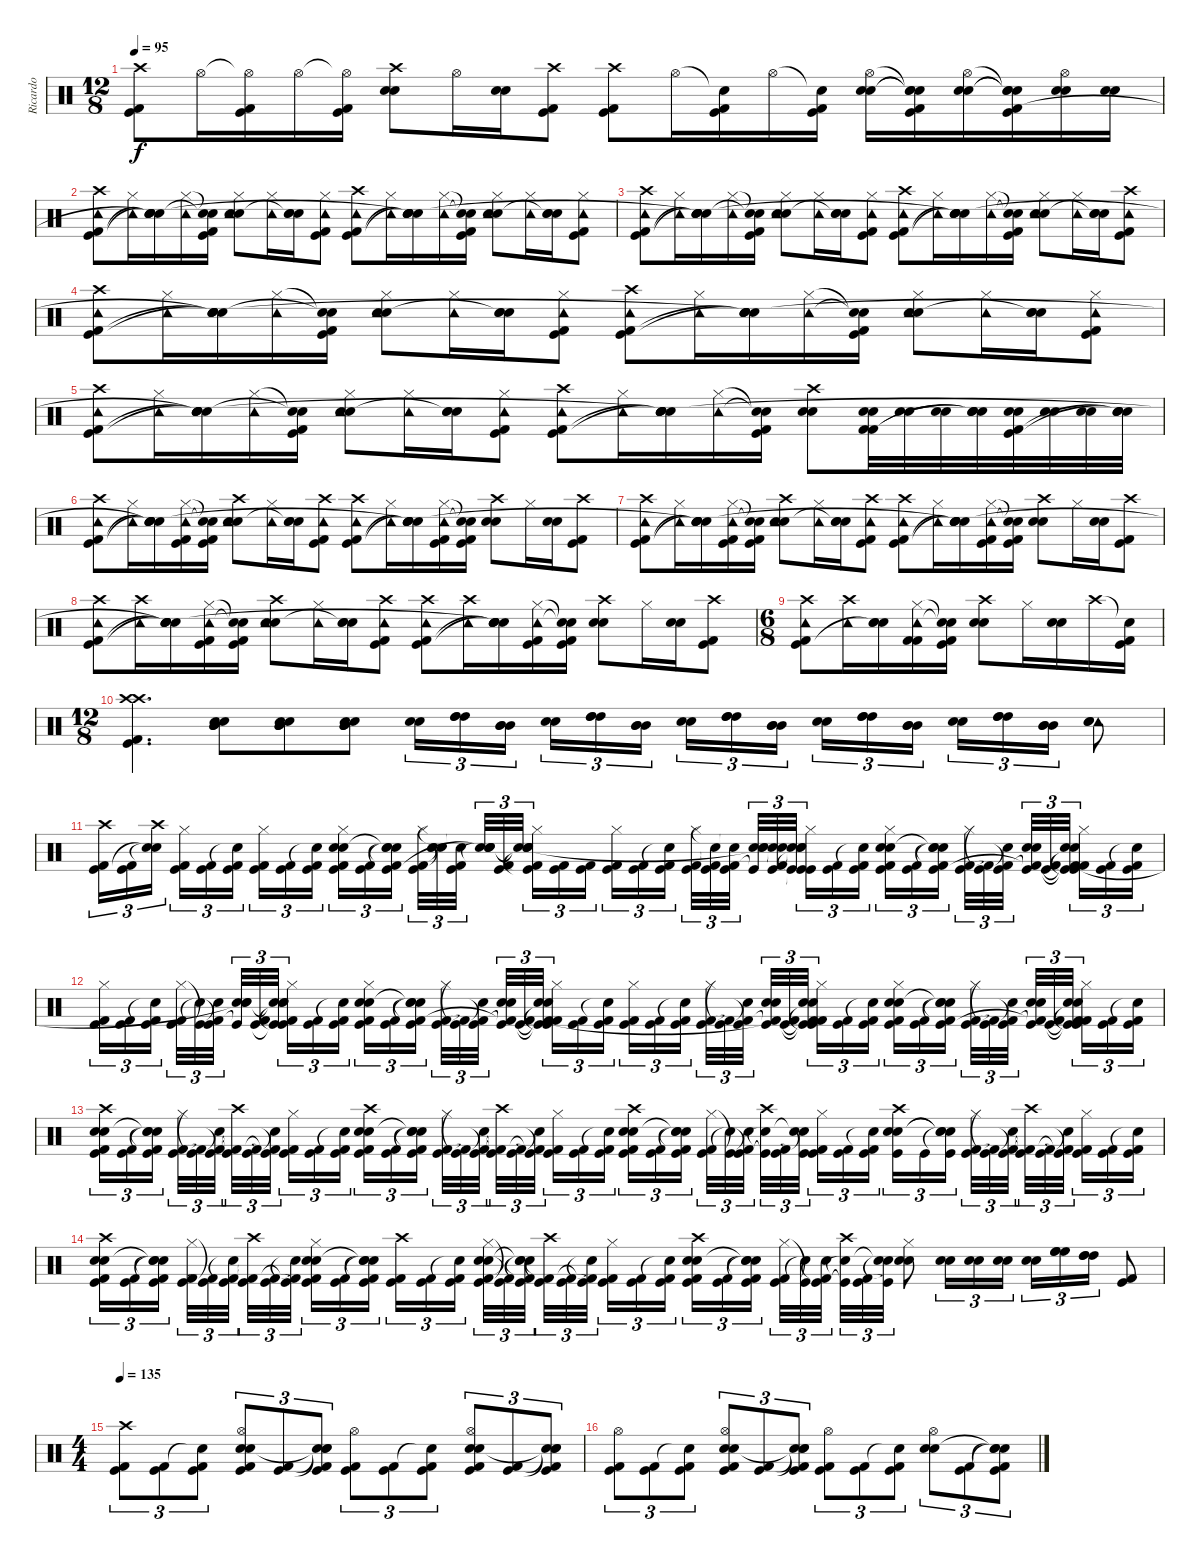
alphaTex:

\track ("Ricardo" "Ricardo") {instrument percussion}
\staff {score}
\articulation defaults
\ts (12 8)
\tempo 95
\clef neutral
\ks c
("Crash high (hit)" "Kick (hit)" "Kick (hit) 2").8{dy f} "Hi-Hat (open)".16 ("Hi-Hat (open)"{t} "Kick (hit)" "Kick (hit) 2").16 "Hi-Hat (open)".16 ("Hi-Hat (open)"{t} "Kick (hit)" "Kick (hit) 2").16 ("Crash high (hit)" "Electric Snare (hit)" "Snare (hit) 2").8 "Hi-Hat (open)".16 ("Electric Snare (hit)" "Snare (hit) 2").16 ("Crash high (hit)" "Kick (hit)" "Kick (hit) 2").8 ("Crash high (hit)" "Kick (hit)" "Kick (hit) 2").8 "Hi-Hat (open)".16 ("Snare (hit)"{t} "Kick (hit)" "Kick (hit) 2").16 "Hi-Hat (open)".16 ("Snare (hit)"{t} "Kick (hit)" "Kick (hit) 2").16 ("Hi-Hat (open)" "Electric Snare (hit)" "Snare (hit) 2").16 ("Snare (hit)"{t} "Snare (hit)"{t} "Snare (hit)"{t} "Kick (hit)" "Kick (hit) 2").16 ("Hi-Hat (open)" "Electric Snare (hit)" "Snare (hit) 2").16 ("Snare (hit)"{t} "Snare (hit)"{t} "Snare (hit)"{t} "Kick (hit)" "Kick (hit) 2").16 ("Hi-Hat (open)" "Electric Snare (hit)" "Snare (hit) 2").16 ("Electric Snare (hit)" "Snare (hit) 2").16 |
("Crash high (hit)" "Tambourine (hit)" "Kick (hit) 2" "Kick (hit)").8 ("Hi-Hat (closed)" "Tambourine (hit)").16 ("Electric Snare (hit)" "Snare (hit) 2" "Snare (hit)"{t} "Snare (hit)"{t} "Snare (hit)"{t}).16 ("Hi-Hat (closed)" "Tambourine (hit)").16 ("Snare (hit)"{t} "Kick (hit)" "Kick (hit) 2" "Snare (hit)"{t}).16 ("Hi-Hat (closed)" "Electric Snare (hit)" "Snare (hit) 2" "Tambourine (hit)").8 ("Hi-Hat (closed)" "Tambourine (hit)").16 ("Electric Snare (hit)" "Snare (hit) 2" "Snare (hit)"{t}).16 ("Hi-Hat (closed)" "Tambourine (hit)" "Kick (hit)" "Kick (hit) 2").8 ("Crash high (hit)" "Tambourine (hit)" "Kick (hit)" "Kick (hit) 2").8 ("Hi-Hat (closed)" "Tambourine (hit)").16 ("Electric Snare (hit)" "Snare (hit) 2" "Snare (hit)"{t} "Snare (hit)"{t} "Snare (hit)"{t}).16 ("Hi-Hat (closed)" "Tambourine (hit)").16 ("Snare (hit)"{t} "Snare (hit)"{t} "Kick (hit) 2" "Kick (hit)").16 ("Hi-Hat (closed)" "Electric Snare (hit)" "Snare (hit) 2" "Tambourine (hit)").8 ("Hi-Hat (closed)" "Tambourine (hit)").16 ("Electric Snare (hit)" "Snare (hit) 2" "Snare (hit)"{t}).16 ("Hi-Hat (closed)" "Tambourine (hit)" "Kick (hit)" "Kick (hit) 2").8 |
("Crash high (hit)" "Tambourine (hit)" "Kick (hit) 2" "Kick (hit)").8 ("Hi-Hat (closed)" "Tambourine (hit)").16 ("Electric Snare (hit)" "Snare (hit) 2" "Snare (hit)"{t} "Snare (hit)"{t} "Snare (hit)"{t}).16 ("Hi-Hat (closed)" "Tambourine (hit)").16 ("Snare (hit)"{t} "Kick (hit)" "Kick (hit) 2" "Snare (hit)"{t}).16 ("Hi-Hat (closed)" "Electric Snare (hit)" "Snare (hit) 2" "Tambourine (hit)").8 ("Hi-Hat (closed)" "Tambourine (hit)").16 ("Electric Snare (hit)" "Snare (hit) 2" "Snare (hit)"{t}).16 ("Hi-Hat (closed)" "Tambourine (hit)" "Kick (hit)" "Kick (hit) 2").8 ("Crash high (hit)" "Tambourine (hit)" "Kick (hit)" "Kick (hit) 2").8 ("Hi-Hat (closed)" "Tambourine (hit)").16 ("Electric Snare (hit)" "Snare (hit) 2" "Snare (hit)"{t} "Snare (hit)"{t} "Snare (hit)"{t}).16 ("Hi-Hat (closed)" "Tambourine (hit)").16 ("Snare (hit)"{t} "Snare (hit)"{t} "Kick (hit) 2" "Kick (hit)").16 ("Hi-Hat (closed)" "Electric Snare (hit)" "Snare (hit) 2" "Tambourine (hit)").8 ("Hi-Hat (closed)" "Tambourine (hit)").16 ("Electric Snare (hit)" "Snare (hit) 2" "Snare (hit)"{t}).16 ("Crash high (hit)" "Tambourine (hit)" "Kick (hit)" "Kick (hit) 2").8 |
("Crash high (hit)" "Tambourine (hit)" "Kick (hit) 2" "Kick (hit)").8 ("Hi-Hat (closed)" "Tambourine (hit)").16 ("Electric Snare (hit)" "Snare (hit) 2" "Snare (hit)"{t} "Snare (hit)"{t} "Snare (hit)"{t}).16 ("Hi-Hat (closed)" "Tambourine (hit)").16 ("Snare (hit)"{t} "Kick (hit)" "Kick (hit) 2" "Snare (hit)"{t}).16 ("Hi-Hat (closed)" "Electric Snare (hit)" "Snare (hit) 2" "Tambourine (hit)").8 ("Hi-Hat (closed)" "Tambourine (hit)").16 ("Electric Snare (hit)" "Snare (hit) 2" "Snare (hit)"{t}).16 ("Hi-Hat (closed)" "Tambourine (hit)" "Kick (hit)" "Kick (hit) 2").8 ("Crash high (hit)" "Tambourine (hit)" "Kick (hit)" "Kick (hit) 2").8 ("Hi-Hat (closed)" "Tambourine (hit)").16 ("Electric Snare (hit)" "Snare (hit) 2" "Snare (hit)"{t} "Snare (hit)"{t} "Snare (hit)"{t}).16 ("Hi-Hat (closed)" "Tambourine (hit)").16 ("Snare (hit)"{t} "Snare (hit)"{t} "Kick (hit) 2" "Kick (hit)").16 ("Hi-Hat (closed)" "Electric Snare (hit)" "Snare (hit) 2" "Tambourine (hit)").8 ("Hi-Hat (closed)" "Tambourine (hit)").16 ("Electric Snare (hit)" "Snare (hit) 2" "Snare (hit)"{t}).16 ("Hi-Hat (closed)" "Tambourine (hit)" "Kick (hit)" "Kick (hit) 2").8 |
("Crash high (hit)" "Tambourine (hit)" "Kick (hit) 2" "Kick (hit)").8 ("Hi-Hat (closed)" "Tambourine (hit)").16 ("Electric Snare (hit)" "Snare (hit) 2" "Snare (hit)"{t} "Snare (hit)"{t} "Snare (hit)"{t}).16 ("Hi-Hat (closed)" "Tambourine (hit)").16 ("Snare (hit)"{t} "Kick (hit)" "Kick (hit) 2" "Snare (hit)"{t}).16 ("Hi-Hat (closed)" "Electric Snare (hit)" "Snare (hit) 2" "Tambourine (hit)").8 ("Hi-Hat (closed)" "Tambourine (hit)").16 ("Electric Snare (hit)" "Snare (hit) 2" "Snare (hit)"{t}).16 ("Hi-Hat (closed)" "Tambourine (hit)" "Kick (hit)" "Kick (hit) 2").8 ("Crash high (hit)" "Tambourine (hit)" "Kick (hit)" "Kick (hit) 2").8 ("Hi-Hat (closed)" "Tambourine (hit)").16 ("Electric Snare (hit)" "Snare (hit) 2" "Snare (hit)"{t} "Snare (hit)"{t} "Snare (hit)"{t}).16 ("Hi-Hat (closed)" "Tambourine (hit)").16 ("Snare (hit)"{t} "Snare (hit)"{t} "Kick (hit) 2" "Kick (hit)").16 ("Crash high (hit)" "Electric Snare (hit)" "Snare (hit) 2").8 ("Electric Snare (hit)" "Snare (hit) 2" "Kick (hit) 2" "Kick (hit) 2").32 ("Electric Snare (hit)" "Snare (hit) 2").32 ("Electric Snare (hit)" "Snare (hit) 2").32 ("Electric Snare (hit)" "Snare (hit) 2" "Snare (hit)"{t} "Snare (hit)"{t}).32 ("Electric Snare (hit)" "Snare (hit) 2" "Kick (hit)" "Kick (hit) 2").32 ("Electric Snare (hit)" "Snare (hit) 2").32 ("Electric Snare (hit)" "Snare (hit) 2").32 ("Electric Snare (hit)" "Snare (hit) 2" "Snare (hit)"{t} "Snare (hit)"{t}).32 |
("Crash high (hit)" "Tambourine (hit)" "Kick (hit)" "Kick (hit) 2").8 ("Hi-Hat (closed)" "Tambourine (hit)").16 ("Electric Snare (hit)" "Snare (hit) 2" "Snare (hit)"{t} "Snare (hit)"{t} "Snare (hit)"{t}).16 ("Hi-Hat (closed)" "Tambourine (hit)" "Kick (hit)" "Kick (hit) 2").16 ("Snare (hit)"{t} "Snare (hit)"{t} "Kick (hit)" "Kick (hit) 2").16 ("Crash high (hit)" "Electric Snare (hit)" "Snare (hit) 2" "Tambourine (hit)").8 ("Hi-Hat (closed)" "Tambourine (hit)").16 ("Electric Snare (hit)" "Snare (hit) 2" "Snare (hit)"{t}).16 ("Crash high (hit)" "Tambourine (hit)" "Kick (hit)" "Kick (hit) 2").8 ("Crash high (hit)" "Tambourine (hit)" "Kick (hit)" "Kick (hit) 2").8 ("Hi-Hat (closed)" "Tambourine (hit)").16 ("Electric Snare (hit)" "Snare (hit) 2" "Snare (hit)"{t} "Snare (hit)"{t} "Snare (hit)"{t}).16 ("Hi-Hat (closed)" "Tambourine (hit)" "Kick (hit)" "Kick (hit) 2").16 ("Snare (hit)"{t} "Snare (hit)"{t} "Kick (hit)" "Kick (hit) 2").16 ("Crash high (hit)" "Electric Snare (hit)" "Snare (hit) 2").8 "Hi-Hat (closed)".16 ("Electric Snare (hit)" "Snare (hit) 2").16 ("Crash high (hit)" "Kick (hit)" "Kick (hit) 2").8 |
("Crash high (hit)" "Tambourine (hit)" "Kick (hit)" "Kick (hit) 2").8 ("Hi-Hat (closed)" "Tambourine (hit)").16 ("Electric Snare (hit)" "Snare (hit) 2" "Snare (hit)"{t} "Snare (hit)"{t} "Snare (hit)"{t}).16 ("Hi-Hat (closed)" "Tambourine (hit)" "Kick (hit)" "Kick (hit) 2").16 ("Snare (hit)"{t} "Snare (hit)"{t} "Kick (hit)" "Kick (hit) 2").16 ("Crash high (hit)" "Electric Snare (hit)" "Snare (hit) 2" "Tambourine (hit)").8 ("Hi-Hat (closed)" "Tambourine (hit)").16 ("Electric Snare (hit)" "Snare (hit) 2" "Snare (hit)"{t}).16 ("Crash high (hit)" "Tambourine (hit)" "Kick (hit)" "Kick (hit) 2").8 ("Crash high (hit)" "Tambourine (hit)" "Kick (hit)" "Kick (hit) 2").8 ("Hi-Hat (closed)" "Tambourine (hit)").16 ("Electric Snare (hit)" "Snare (hit) 2" "Snare (hit)"{t} "Snare (hit)"{t} "Snare (hit)"{t}).16 ("Hi-Hat (closed)" "Tambourine (hit)" "Kick (hit)" "Kick (hit) 2").16 ("Snare (hit)"{t} "Snare (hit)"{t} "Kick (hit)" "Kick (hit) 2").16 ("Crash high (hit)" "Electric Snare (hit)" "Snare (hit) 2").8 "Hi-Hat (closed)".16 ("Electric Snare (hit)" "Snare (hit) 2").16 ("Crash high (hit)" "Kick (hit)" "Kick (hit) 2").8 |
("Crash high (hit)" "Tambourine (hit)" "Kick (hit)" "Kick (hit) 2").8 ("Crash high (hit)" "Tambourine (hit)").16 ("Electric Snare (hit)" "Snare (hit) 2" "Snare (hit)"{t} "Snare (hit)"{t} "Snare (hit)"{t}).16 ("Hi-Hat (closed)" "Tambourine (hit)" "Kick (hit)" "Kick (hit) 2").16 ("Snare (hit)"{t} "Snare (hit)"{t} "Kick (hit)" "Kick (hit) 2").16 ("Crash high (hit)" "Electric Snare (hit)" "Snare (hit) 2" "Tambourine (hit)").8 ("Hi-Hat (closed)" "Tambourine (hit)").16 ("Electric Snare (hit)" "Snare (hit) 2" "Snare (hit)"{t}).16 ("Crash high (hit)" "Tambourine (hit)" "Kick (hit)" "Kick (hit) 2").8 ("Crash high (hit)" "Tambourine (hit)" "Kick (hit)" "Kick (hit) 2").8 ("Crash high (hit)" "Tambourine (hit)").16 ("Electric Snare (hit)" "Snare (hit) 2" "Snare (hit)"{t} "Snare (hit)"{t} "Snare (hit)"{t}).16 ("Hi-Hat (closed)" "Tambourine (hit)" "Kick (hit)" "Kick (hit) 2").16 ("Snare (hit)"{t} "Snare (hit)"{t} "Kick (hit)" "Kick (hit) 2").16 ("Crash high (hit)" "Electric Snare (hit)" "Snare (hit) 2").8 "Hi-Hat (closed)".16 ("Electric Snare (hit)" "Snare (hit) 2").16 ("Crash high (hit)" "Kick (hit)" "Kick (hit) 2").8 |
\ts (6 8)
("Crash high (hit)" "Kick (hit) 2" "Kick (hit)" "Tambourine (hit)").8 ("Crash high (hit)" "Tambourine (hit)").16 ("Electric Snare (hit)" "Snare (hit) 2" "Snare (hit)"{t}).16 ("Hi-Hat (closed)" "Tambourine (hit)" "Kick (hit) 2" "Kick (hit) 2").16 ("Snare (hit)"{t} "Snare (hit)"{t} "Kick (hit)" "Kick (hit) 2").16 ("Crash high (hit)" "Electric Snare (hit)" "Snare (hit) 2").8 "Hi-Hat (closed)".16 ("Electric Snare (hit)" "Snare (hit) 2").16 "Crash high (hit)".16 ("Snare (hit)"{t} "Kick (hit)" "Kick (hit) 2").16 |
\ts (12 8)
("Crash high (hit)" "Crash high (hit)" "Kick (hit)" "Kick (hit) 2").4{d} ("Electric Snare (hit)" "Snare (hit) 2" "Mid Tom (hit)" "Mid Tom (hit)" "Mid Tom (hit)").8 ("Electric Snare (hit)" "Snare (hit) 2" "Mid Tom (hit)" "Mid Tom (hit)" "Mid Tom (hit)").8 ("Electric Snare (hit)" "Snare (hit) 2" "Mid Tom (hit)" "Mid Tom (hit)" "Mid Tom (hit)").8 ("Electric Snare (hit)" "Snare (hit) 2").16{tu (3 2)} ("High Tom (hit)" "High Tom (hit)" "High Tom (hit)").16{tu (3 2)} ("Mid Tom (hit)" "Mid Tom (hit)" "Mid Tom (hit)").16{tu (3 2)} ("Electric Snare (hit)" "Snare (hit) 2").16{tu (3 2)} ("High Tom (hit)" "High Tom (hit)" "High Tom (hit)").16{tu (3 2)} ("Mid Tom (hit)" "Mid Tom (hit)" "Mid Tom (hit)").16{tu (3 2)} ("Electric Snare (hit)" "Snare (hit) 2").16{tu (3 2)} ("High Tom (hit)" "High Tom (hit)" "High Tom (hit)").16{tu (3 2)} ("Mid Tom (hit)" "Mid Tom (hit)" "Mid Tom (hit)").16{tu (3 2)} ("Electric Snare (hit)" "Snare (hit) 2").16{tu (3 2)} ("High Tom (hit)" "High Tom (hit)" "High Tom (hit)").16{tu (3 2)} ("Mid Tom (hit)" "Mid Tom (hit)" "Mid Tom (hit)").16{tu (3 2)} ("Electric Snare (hit)" "Snare (hit) 2").16{tu (3 2)} ("High Tom (hit)" "High Tom (hit)" "High Tom (hit)").16{tu (3 2)} ("Mid Tom (hit)" "Mid Tom (hit)" "Mid Tom (hit)").16{tu (3 2)} ("Tambourine (hit)" "Electric Snare (hit)" "Snare (hit) 2").8 |
("Crash high (hit)" "Kick (hit) 2" "Kick (hit)").16{tu (3 2)} ("Kick (hit)" "Kick (hit) 2").16{tu (3 2)} ("Crash high (hit)" "Snare (hit)"{t} "Snare (hit)"{t}).16{tu (3 2)} ("Hi-Hat (closed)" "Kick (hit)" "Kick (hit) 2").16{tu (3 2)} ("Kick (hit)" "Kick (hit) 2").16{tu (3 2)} ("Snare (hit)"{t} "Kick (hit)" "Kick (hit) 2").16{tu (3 2)} ("Hi-Hat (closed)" "Kick (hit)" "Kick (hit) 2").16{tu (3 2)} ("Kick (hit)" "Kick (hit) 2").16{tu (3 2)} ("Snare (hit)"{t} "Kick (hit)" "Kick (hit) 2").16{tu (3 2)} ("Hi-Hat (closed)" "Electric Snare (hit)" "Snare (hit) 2" "Kick (hit)" "Kick (hit) 2").16{tu (3 2)} ("Kick (hit)" "Kick (hit) 2").16{tu (3 2)} ("Snare (hit)"{t} "Snare (hit)"{t} "Snare (hit)"{t} "Kick (hit)" "Kick (hit) 2").16{tu (3 2)} ("Hi-Hat (closed)" "Kick (hit)" "Kick (hit) 2").32{tu (3 2)} ("Snare (hit)"{t} "Snare (hit)"{t} "Snare (hit)"{t}).32{tu (3 2)} ("Snare (hit)"{t} "Kick (hit)" "Kick (hit) 2").32{tu (3 2)} ("Electric Snare (hit)" "Snare (hit) 2" "Snare (hit)"{t} "Snare (hit)"{t}).32{tu (3 2)} ("Kick (hit)" "Kick (hit) 2").32{tu (3 2)} ("Snare (hit)"{t} "Snare (hit)"{t} "Snare (hit)"{t} "Snare (hit)"{t}).32{tu (3 2)} ("Hi-Hat (closed)" "Kick (hit)" "Kick (hit) 2").16{tu (3 2)} ("Kick (hit)" "Kick (hit) 2").16{tu (3 2)} ("Kick (hit)" "Kick (hit) 2").16{tu (3 2)} ("Hi-Hat (closed)" "Kick (hit)" "Kick (hit) 2").16{tu (3 2)} ("Kick (hit)" "Kick (hit) 2").16{tu (3 2)} ("Snare (hit)"{t} "Kick (hit)" "Kick (hit) 2").16{tu (3 2)} ("Hi-Hat (closed)" "Kick (hit)" "Kick (hit) 2").32{tu (3 2)} ("Snare (hit)"{t} "Kick (hit)"{t} "Kick (hit) 2"{t}).32{tu (3 2)} ("Snare (hit)"{t} "Kick (hit)" "Kick (hit) 2").32{tu (3 2)} ("Electric Snare (hit)" "Snare (hit) 2" "Kick (hit)"{t} "Snare (hit)"{t}).32{tu (3 2)} ("Snare (hit)"{t} "Snare (hit)"{t} "Kick (hit)" "Kick (hit) 2").32{tu (3 2)} ("Snare (hit)"{t} "Snare (hit)"{t} "Kick (hit)"{t} "Snare (hit)"{t}).32{tu (3 2)} ("Hi-Hat (closed)" "Kick (hit)" "Kick (hit)").16{tu (3 2)} ("Kick (hit)" "Kick (hit) 2").16{tu (3 2)} ("Snare (hit)"{t} "Kick (hit) 2" "Kick (hit)").16{tu (3 2)} ("Hi-Hat (closed)" "Electric Snare (hit)" "Snare (hit) 2" "Kick (hit)" "Kick (hit) 2").16{tu (3 2)} ("Kick (hit)" "Kick (hit) 2").16{tu (3 2)} ("Snare (hit)"{t} "Snare (hit)"{t} "Snare (hit)"{t} "Kick (hit)" "Kick (hit) 2").16{tu (3 2)} ("Hi-Hat (closed)" "Kick (hit)" "Kick (hit) 2").32{tu (3 2)} ("Kick (hit)"{t} "Kick (hit) 2"{t}).32{tu (3 2)} ("Snare (hit)"{t} "Kick (hit)" "Kick (hit) 2").32{tu (3 2)} ("Electric Snare (hit)" "Snare (hit) 2" "Kick (hit)"{t} "Kick (hit) 2"{t}).32{tu (3 2)} ("Kick (hit)" "Kick (hit) 2").32{tu (3 2)} ("Snare (hit)"{t} "Snare (hit)"{t} "Kick (hit)"{t} "Kick (hit) 2"{t}).32{tu (3 2)} ("Hi-Hat (closed)" "Kick (hit)" "Kick (hit) 2").16{tu (3 2)} ("Kick (hit)" "Kick (hit) 2").16{tu (3 2)} ("Snare (hit)"{t} "Kick (hit)" "Kick (hit) 2").16{tu (3 2)} |
("Hi-Hat (closed)" "Kick (hit)" "Kick (hit) 2").16{tu (3 2)} ("Kick (hit)" "Kick (hit) 2").16{tu (3 2)} ("Snare (hit)"{t} "Kick (hit)" "Kick (hit) 2").16{tu (3 2)} ("Hi-Hat (closed)" "Kick (hit)" "Kick (hit) 2").32{tu (3 2)} ("Kick (hit)"{t} "Snare (hit)"{t}).32{tu (3 2)} ("Snare (hit)"{t} "Kick (hit)" "Kick (hit) 2").32{tu (3 2)} ("Electric Snare (hit)" "Snare (hit) 2" "Kick (hit)"{t} "Snare (hit)"{t}).32{tu (3 2)} ("Kick (hit)" "Kick (hit) 2").32{tu (3 2)} ("Snare (hit)"{t} "Snare (hit)"{t} "Kick (hit)"{t} "Snare (hit)"{t}).32{tu (3 2)} ("Hi-Hat (closed)" "Kick (hit)" "Kick (hit) 2").16{tu (3 2)} ("Kick (hit)" "Kick (hit) 2").16{tu (3 2)} ("Snare (hit)"{t} "Kick (hit) 2" "Kick (hit)").16{tu (3 2)} ("Hi-Hat (closed)" "Electric Snare (hit)" "Snare (hit) 2" "Kick (hit)" "Kick (hit) 2").16{tu (3 2)} ("Kick (hit)" "Kick (hit) 2").16{tu (3 2)} ("Snare (hit)"{t} "Snare (hit)"{t} "Snare (hit)"{t} "Kick (hit) 2" "Kick (hit)").16{tu (3 2)} ("Hi-Hat (closed)" "Kick (hit)" "Kick (hit) 2").32{tu (3 2)} ("Kick (hit)"{t} "Kick (hit) 2"{t}).32{tu (3 2)} ("Snare (hit)"{t} "Kick (hit)" "Kick (hit) 2").32{tu (3 2)} ("Electric Snare (hit)" "Snare (hit) 2" "Kick (hit)"{t} "Kick (hit) 2"{t}).32{tu (3 2)} ("Kick (hit)" "Kick (hit) 2").32{tu (3 2)} ("Snare (hit)"{t} "Snare (hit)"{t} "Kick (hit)"{t} "Kick (hit) 2"{t}).32{tu (3 2)} ("Hi-Hat (closed)" "Kick (hit) 2" "Kick (hit)").16{tu (3 2)} ("Kick (hit) 2" "Kick (hit)").16{tu (3 2)} ("Snare (hit)"{t} "Kick (hit) 2" "Kick (hit)").16{tu (3 2)} ("Hi-Hat (closed)" "Kick (hit)" "Kick (hit) 2").16{tu (3 2)} ("Kick (hit)" "Kick (hit) 2").16{tu (3 2)} ("Snare (hit)"{t} "Kick (hit)" "Kick (hit) 2").16{tu (3 2)} ("Hi-Hat (closed)" "Kick (hit)" "Kick (hit) 2").32{tu (3 2)} ("Kick (hit)"{t} "Kick (hit) 2"{t}).32{tu (3 2)} ("Snare (hit)"{t} "Kick (hit)" "Kick (hit) 2").32{tu (3 2)} ("Electric Snare (hit)" "Snare (hit) 2" "Kick (hit)"{t} "Kick (hit) 2"{t}).32{tu (3 2)} ("Kick (hit)" "Kick (hit) 2").32{tu (3 2)} ("Snare (hit)"{t} "Snare (hit)"{t} "Kick (hit)"{t} "Kick (hit) 2"{t}).32{tu (3 2)} ("Hi-Hat (closed)" "Kick (hit)" "Kick (hit) 2").16{tu (3 2)} ("Kick (hit)" "Kick (hit) 2").16{tu (3 2)} ("Snare (hit)"{t} "Kick (hit)" "Kick (hit) 2").16{tu (3 2)} ("Hi-Hat (closed)" "Electric Snare (hit)" "Snare (hit) 2" "Kick (hit)" "Kick (hit) 2").16{tu (3 2)} ("Kick (hit)" "Kick (hit) 2").16{tu (3 2)} ("Snare (hit)"{t} "Snare (hit)"{t} "Snare (hit)"{t} "Kick (hit)" "Kick (hit) 2").16{tu (3 2)} ("Hi-Hat (closed)" "Kick (hit)" "Kick (hit) 2").32{tu (3 2)} ("Kick (hit)"{t} "Kick (hit) 2"{t}).32{tu (3 2)} ("Snare (hit)"{t} "Kick (hit)" "Kick (hit) 2").32{tu (3 2)} ("Electric Snare (hit)" "Snare (hit) 2" "Kick (hit)"{t} "Kick (hit) 2"{t}).32{tu (3 2)} ("Kick (hit)" "Kick (hit) 2").32{tu (3 2)} ("Snare (hit)"{t} "Snare (hit)"{t} "Kick (hit)"{t} "Kick (hit) 2"{t}).32{tu (3 2)} ("Hi-Hat (closed)" "Kick (hit)" "Kick (hit) 2").16{tu (3 2)} ("Kick (hit)" "Kick (hit) 2").16{tu (3 2)} ("Snare (hit)"{t} "Kick (hit)" "Kick (hit) 2").16{tu (3 2)} |
("Crash high (hit)" "Electric Snare (hit)" "Snare (hit) 2" "Kick (hit)" "Kick (hit) 2").16{tu (3 2)} ("Kick (hit)" "Kick (hit) 2").16{tu (3 2)} ("Snare (hit)"{t} "Snare (hit)"{t} "Snare (hit)"{t} "Kick (hit)" "Kick (hit) 2").16{tu (3 2)} ("Hi-Hat (closed)" "Kick (hit)" "Kick (hit) 2").32{tu (3 2)} ("Kick (hit)"{t} "Kick (hit) 2"{t}).32{tu (3 2)} ("Snare (hit)"{t} "Kick (hit)" "Kick (hit) 2").32{tu (3 2)} ("Crash high (hit)" "Kick (hit)"{t} "Kick (hit) 2"{t}).32{tu (3 2)} ("Kick (hit)" "Kick (hit) 2").32{tu (3 2)} ("Snare (hit)"{t} "Kick (hit)"{t} "Kick (hit) 2"{t}).32{tu (3 2)} ("Hi-Hat (closed)" "Kick (hit)" "Kick (hit) 2").16{tu (3 2)} ("Kick (hit)" "Kick (hit) 2").16{tu (3 2)} ("Snare (hit)"{t} "Kick (hit)" "Kick (hit) 2").16{tu (3 2)} ("Crash high (hit)" "Electric Snare (hit)" "Snare (hit) 2" "Kick (hit)" "Kick (hit) 2").16{tu (3 2)} ("Kick (hit)" "Kick (hit) 2").16{tu (3 2)} ("Snare (hit)"{t} "Snare (hit)"{t} "Snare (hit)"{t} "Kick (hit)" "Kick (hit) 2").16{tu (3 2)} ("Hi-Hat (closed)" "Kick (hit)" "Kick (hit) 2").32{tu (3 2)} ("Kick (hit)"{t} "Kick (hit) 2"{t}).32{tu (3 2)} ("Snare (hit)"{t} "Kick (hit)" "Kick (hit) 2").32{tu (3 2)} ("Crash high (hit)" "Kick (hit)"{t} "Kick (hit) 2"{t}).32{tu (3 2)} ("Kick (hit)" "Kick (hit) 2").32{tu (3 2)} ("Snare (hit)"{t} "Kick (hit)"{t} "Kick (hit) 2"{t}).32{tu (3 2)} ("Hi-Hat (closed)" "Kick (hit)" "Kick (hit) 2").16{tu (3 2)} ("Kick (hit)" "Kick (hit) 2").16{tu (3 2)} ("Snare (hit)"{t} "Kick (hit)" "Kick (hit) 2").16{tu (3 2)} ("Crash high (hit)" "Electric Snare (hit)" "Snare (hit) 2" "Kick (hit)" "Kick (hit) 2").16{tu (3 2)} ("Kick (hit)" "Kick (hit) 2").16{tu (3 2)} ("Snare (hit)"{t} "Snare (hit)"{t} "Snare (hit)"{t} "Kick (hit)" "Kick (hit) 2").16{tu (3 2)} ("Hi-Hat (closed)" "Kick (hit)" "Kick (hit) 2").32{tu (3 2)} ("Kick (hit)"{t} "Snare (hit)"{t}).32{tu (3 2)} ("Snare (hit)"{t} "Kick (hit)" "Kick (hit) 2").32{tu (3 2)} ("Crash high (hit)" "Kick (hit)"{t} "Snare (hit)"{t}).32{tu (3 2)} ("Kick (hit)" "Kick (hit) 2").32{tu (3 2)} ("Snare (hit)"{t} "Kick (hit)"{t} "Snare (hit)"{t}).32{tu (3 2)} ("Hi-Hat (closed)" "Kick (hit) 2" "Kick (hit)").16{tu (3 2)} ("Kick (hit) 2" "Kick (hit)").16{tu (3 2)} ("Snare (hit)"{t} "Kick (hit) 2" "Kick (hit)").16{tu (3 2)} ("Crash high (hit)" "Electric Snare (hit)" "Snare (hit) 2" "Kick (hit)").16{tu (3 2)} "Kick (hit)".16{tu (3 2)} ("Snare (hit)"{t} "Snare (hit)"{t} "Snare (hit)"{t} "Kick (hit)").16{tu (3 2)} ("Hi-Hat (closed)" "Kick (hit)" "Kick (hit) 2").32{tu (3 2)} ("Kick (hit)"{t} "Kick (hit) 2"{t}).32{tu (3 2)} ("Snare (hit)"{t} "Kick (hit)" "Kick (hit) 2").32{tu (3 2)} ("Crash high (hit)" "Kick (hit)"{t} "Kick (hit) 2"{t}).32{tu (3 2)} ("Kick (hit)" "Kick (hit) 2").32{tu (3 2)} ("Snare (hit)"{t} "Kick (hit)"{t} "Kick (hit) 2"{t}).32{tu (3 2)} ("Hi-Hat (closed)" "Kick (hit)" "Kick (hit) 2").16{tu (3 2)} ("Kick (hit)" "Kick (hit) 2").16{tu (3 2)} ("Snare (hit)"{t} "Kick (hit)" "Kick (hit) 2").16{tu (3 2)} |
("Crash high (hit)" "Electric Snare (hit)" "Snare (hit) 2" "Kick (hit)" "Kick (hit) 2").16{tu (3 2)} ("Kick (hit)" "Kick (hit) 2").16{tu (3 2)} ("Snare (hit)"{t} "Snare (hit)"{t} "Snare (hit)"{t} "Kick (hit)" "Kick (hit) 2").16{tu (3 2)} ("Hi-Hat (closed)" "Kick (hit)" "Kick (hit) 2").32{tu (3 2)} ("Kick (hit)"{t} "Kick (hit) 2"{t}).32{tu (3 2)} ("Snare (hit)"{t} "Kick (hit)" "Kick (hit) 2").32{tu (3 2)} ("Crash high (hit)" "Kick (hit)"{t} "Kick (hit) 2"{t}).32{tu (3 2)} ("Kick (hit)" "Kick (hit) 2").32{tu (3 2)} ("Snare (hit)"{t} "Kick (hit)"{t} "Kick (hit) 2"{t}).32{tu (3 2)} ("Hi-Hat (closed)" "Electric Snare (hit)" "Snare (hit) 2" "Kick (hit)" "Kick (hit) 2").16{tu (3 2)} ("Kick (hit)" "Kick (hit) 2").16{tu (3 2)} ("Snare (hit)"{t} "Snare (hit)"{t} "Snare (hit)"{t} "Kick (hit)" "Kick (hit) 2").16{tu (3 2)} ("Crash high (hit)" "Kick (hit)" "Kick (hit) 2").16{tu (3 2)} ("Kick (hit)" "Kick (hit) 2").16{tu (3 2)} ("Snare (hit)"{t} "Kick (hit)" "Kick (hit) 2").16{tu (3 2)} ("Hi-Hat (closed)" "Electric Snare (hit)" "Snare (hit) 2" "Kick (hit)" "Kick (hit) 2").32{tu (3 2)} ("Kick (hit)"{t} "Kick (hit) 2"{t}).32{tu (3 2)} ("Snare (hit)"{t} "Snare (hit)"{t} "Snare (hit)"{t} "Kick (hit)" "Kick (hit) 2").32{tu (3 2)} ("Crash high (hit)" "Kick (hit)"{t} "Kick (hit) 2"{t}).32{tu (3 2)} ("Kick (hit)" "Kick (hit) 2").32{tu (3 2)} ("Snare (hit)"{t} "Kick (hit)"{t} "Kick (hit) 2"{t}).32{tu (3 2)} ("Hi-Hat (closed)" "Kick (hit)" "Kick (hit) 2").16{tu (3 2)} ("Kick (hit)" "Kick (hit) 2").16{tu (3 2)} ("Snare (hit)"{t} "Kick (hit)" "Kick (hit) 2").16{tu (3 2)} ("Crash high (hit)" "Electric Snare (hit)" "Snare (hit) 2" "Kick (hit)" "Kick (hit) 2").16{tu (3 2)} ("Kick (hit)" "Kick (hit) 2").16{tu (3 2)} ("Snare (hit)"{t} "Snare (hit)"{t} "Snare (hit)"{t} "Kick (hit)" "Kick (hit) 2").16{tu (3 2)} ("Hi-Hat (closed)" "Kick (hit)" "Kick (hit) 2").32{tu (3 2)} ("Kick (hit)"{t} "Snare (hit)"{t}).32{tu (3 2)} ("Snare (hit)"{t} "Kick (hit)" "Kick (hit) 2").32{tu (3 2)} ("Crash high (hit)" "Kick (hit)"{t} "Snare (hit)"{t}).32{tu (3 2)} ("Kick (hit)" "Kick (hit) 2").32{tu (3 2)} ("Snare (hit)"{t} "Kick (hit)"{t} "Snare (hit)"{t}).32{tu (3 2)} ("Hi-Hat (closed)" "Electric Snare (hit)" "Snare (hit) 2").8 ("Electric Snare (hit)" "Snare (hit) 2").16{tu (3 2)} ("Electric Snare (hit)" "Snare (hit) 2").16{tu (3 2)} ("Electric Snare (hit)" "Snare (hit) 2").16{tu (3 2)} ("Electric Snare (hit)" "Snare (hit) 2").16{tu (3 2)} ("High Floor Tom (hit)" "High Floor Tom (hit)" "High Floor Tom (hit)").16{tu (3 2)} ("High Tom (hit)" "High Tom (hit)" "High Tom (hit)").16{tu (3 2)} ("Kick (hit)" "Kick (hit) 2").8 |
\ts (4 4)
\tempo 141
\tempo 135
("Crash high (hit)" "Kick (hit) 2" "Kick (hit)").8{tu (3 2)} ("Kick (hit) 2" "Kick (hit)").8{tu (3 2)} ("Snare (hit)"{t} "Kick (hit) 2" "Kick (hit)").8{tu (3 2)} ("Hi-Hat (open)" "Electric Snare (hit)" "Snare (hit) 2" "Kick (hit) 2" "Kick (hit)").8{tu (3 2)} ("Kick (hit) 2" "Kick (hit)").8{tu (3 2)} ("Snare (hit)"{t} "Snare (hit)"{t} "Snare (hit)"{t} "Kick (hit) 2" "Kick (hit)").8{tu (3 2)} ("Hi-Hat (open)" "Kick (hit) 2" "Kick (hit)").8{tu (3 2)} ("Kick (hit) 2" "Kick (hit)").8{tu (3 2)} ("Snare (hit)"{t} "Kick (hit) 2" "Kick (hit)").8{tu (3 2)} ("Hi-Hat (open)" "Electric Snare (hit)" "Snare (hit) 2" "Kick (hit) 2" "Kick (hit)").8{tu (3 2)} ("Kick (hit) 2" "Kick (hit)").8{tu (3 2)} ("Snare (hit)"{t} "Snare (hit)"{t} "Snare (hit)"{t} "Kick (hit) 2" "Kick (hit)").8{tu (3 2)} |
("Hi-Hat (open)" "Kick (hit) 2" "Kick (hit)").8{tu (3 2)} ("Kick (hit) 2" "Kick (hit)").8{tu (3 2)} ("Snare (hit)"{t} "Kick (hit) 2" "Kick (hit)").8{tu (3 2)} ("Hi-Hat (open)" "Electric Snare (hit)" "Snare (hit) 2" "Kick (hit) 2" "Kick (hit)").8{tu (3 2)} ("Kick (hit) 2" "Kick (hit)").8{tu (3 2)} ("Snare (hit)"{t} "Snare (hit)"{t} "Snare (hit)"{t} "Kick (hit) 2" "Kick (hit)").8{tu (3 2)} ("Hi-Hat (open)" "Kick (hit) 2" "Kick (hit)").8{tu (3 2)} ("Kick (hit) 2" "Kick (hit)").8{tu (3 2)} ("Snare (hit)"{t} "Kick (hit) 2" "Kick (hit)").8{tu (3 2)} ("Hi-Hat (open)" "Electric Snare (hit)" "Snare (hit) 2").8{tu (3 2)} ("Kick (hit) 2" "Kick (hit)").8{tu (3 2)} ("Snare (hit)"{t} "Snare (hit)"{t} "Snare (hit)"{t} "Kick (hit) 2" "Kick (hit)").8{tu (3 2)}
